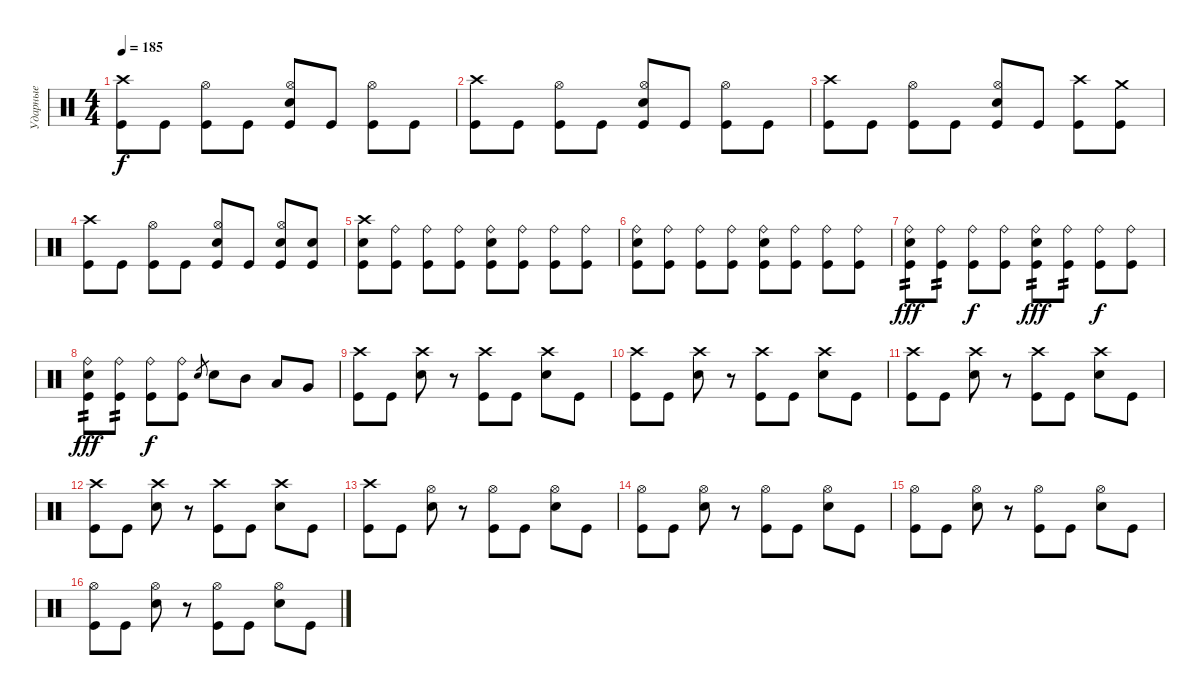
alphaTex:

\track ("Ударные" "Ударные") {instrument percussion}
\staff {score}
\articulation defaults
\ts (4 4)
\tempo 185
\clef neutral
\ks c
("Crash high (hit)" "Kick (hit)").8{dy f} "Kick (hit)".8 ("Hi-Hat (open)" "Kick (hit)").8 "Kick (hit)".8 ("Hi-Hat (open)" "Kick (hit)" "Snare (hit) 2").8 "Kick (hit)".8 ("Hi-Hat (open)" "Kick (hit)").8 "Kick (hit)".8 |
("Crash high (hit)" "Kick (hit)").8 "Kick (hit)".8 ("Hi-Hat (open)" "Kick (hit)").8 "Kick (hit)".8 ("Hi-Hat (open)" "Kick (hit)" "Snare (hit) 2").8 "Kick (hit)".8 ("Hi-Hat (open)" "Kick (hit)").8 "Kick (hit)".8 |
("Crash high (hit)" "Kick (hit)").8 "Kick (hit)".8 ("Hi-Hat (open)" "Kick (hit)").8 "Kick (hit)".8 ("Hi-Hat (open)" "Kick (hit)" "Snare (hit) 2").8 "Kick (hit)".8 ("Crash high (hit)" "Kick (hit)").8 ("Crash medium (hit)" "Kick (hit)").8 |
("Crash high (hit)" "Kick (hit)").8 "Kick (hit)".8 ("Hi-Hat (open)" "Kick (hit)").8 "Kick (hit)".8 ("Hi-Hat (open)" "Kick (hit)" "Snare (hit) 2").8 "Kick (hit)".8 ("Hi-Hat (open)" "Kick (hit)" "Snare (hit) 2").8 ("Kick (hit)" "Snare (hit) 2").8 |
("Kick (hit)" "Crash high (hit)" "Snare (hit) 2").8 ("Kick (hit)" "Ride (bell)").8 ("Kick (hit)" "Ride (bell)").8 ("Kick (hit)" "Ride (bell)").8 ("Kick (hit)" "Ride (bell)" "Snare (hit) 2").8 ("Kick (hit)" "Ride (bell)").8 ("Kick (hit)" "Ride (bell)").8 ("Kick (hit)" "Ride (bell)").8 |
("Kick (hit)" "Ride (bell)" "Snare (hit) 2").8 ("Kick (hit)" "Ride (bell)").8 ("Kick (hit)" "Ride (bell)").8 ("Kick (hit)" "Ride (bell)").8 ("Kick (hit)" "Ride (bell)" "Snare (hit) 2").8 ("Kick (hit)" "Ride (bell)").8 ("Kick (hit)" "Ride (bell)").8 ("Kick (hit)" "Ride (bell)").8 |
("Kick (hit)" "Ride (bell)" "Snare (hit) 2").8{tp 2 dy fff} ("Kick (hit)" "Ride (bell)").8{tp 2} ("Kick (hit)" "Ride (bell)").8{dy f} ("Kick (hit)" "Ride (bell)").8 ("Kick (hit)" "Ride (bell)" "Snare (hit) 2").8{tp 2 dy fff} ("Kick (hit)" "Ride (bell)").8{tp 2} ("Kick (hit)" "Ride (bell)").8{dy f} ("Kick (hit)" "Ride (bell)").8 |
("Kick (hit)" "Ride (bell)" "Snare (hit) 2").8{tp 2 dy fff} ("Kick (hit)" "Ride (bell)").8{tp 2} ("Kick (hit)" "Ride (bell)").8{dy f} ("Kick (hit)" "Ride (bell)").8 "Snare (hit) 2".8{gr} "Snare (hit) 2".8 "Mid Tom (hit)".8 "Low Tom (hit)".8 "Very Low Tom (hit)".8 |
("Crash high (hit)" "Kick (hit)").8 "Kick (hit)".8 ("Crash high (hit)" "Snare (hit) 2").8 r.8 ("Crash high (hit)" "Kick (hit)").8 "Kick (hit)".8 ("Crash high (hit)" "Snare (hit) 2").8 "Kick (hit)".8 |
("Crash high (hit)" "Kick (hit)").8 "Kick (hit)".8 ("Crash high (hit)" "Snare (hit) 2").8 r.8 ("Crash high (hit)" "Kick (hit)").8 "Kick (hit)".8 ("Crash high (hit)" "Snare (hit) 2").8 "Kick (hit)".8 |
("Crash high (hit)" "Kick (hit)").8 "Kick (hit)".8 ("Crash high (hit)" "Snare (hit) 2").8 r.8 ("Crash high (hit)" "Kick (hit)").8 "Kick (hit)".8 ("Crash high (hit)" "Snare (hit) 2").8 "Kick (hit)".8 |
("Crash high (hit)" "Kick (hit)").8 "Kick (hit)".8 ("Crash high (hit)" "Snare (hit) 2").8 r.8 ("Crash high (hit)" "Kick (hit)").8 "Kick (hit)".8 ("Crash high (hit)" "Snare (hit) 2").8 "Kick (hit)".8 |
("Crash high (hit)" "Kick (hit)").8 "Kick (hit)".8 ("Hi-Hat (open)" "Snare (hit) 2").8 r.8 ("Hi-Hat (open)" "Kick (hit)").8 "Kick (hit)".8 ("Hi-Hat (open)" "Snare (hit) 2").8 "Kick (hit)".8 |
("Hi-Hat (open)" "Kick (hit)").8 "Kick (hit)".8 ("Hi-Hat (open)" "Snare (hit) 2").8 r.8 ("Hi-Hat (open)" "Kick (hit)").8 "Kick (hit)".8 ("Hi-Hat (open)" "Snare (hit) 2").8 "Kick (hit)".8 |
("Hi-Hat (open)" "Kick (hit)").8 "Kick (hit)".8 ("Hi-Hat (open)" "Snare (hit) 2").8 r.8 ("Hi-Hat (open)" "Kick (hit)").8 "Kick (hit)".8 ("Hi-Hat (open)" "Snare (hit) 2").8 "Kick (hit)".8 |
("Hi-Hat (open)" "Kick (hit)").8 "Kick (hit)".8 ("Hi-Hat (open)" "Snare (hit) 2").8 r.8 ("Hi-Hat (open)" "Kick (hit)").8 "Kick (hit)".8 ("Hi-Hat (open)" "Snare (hit) 2").8 "Kick (hit)".8
